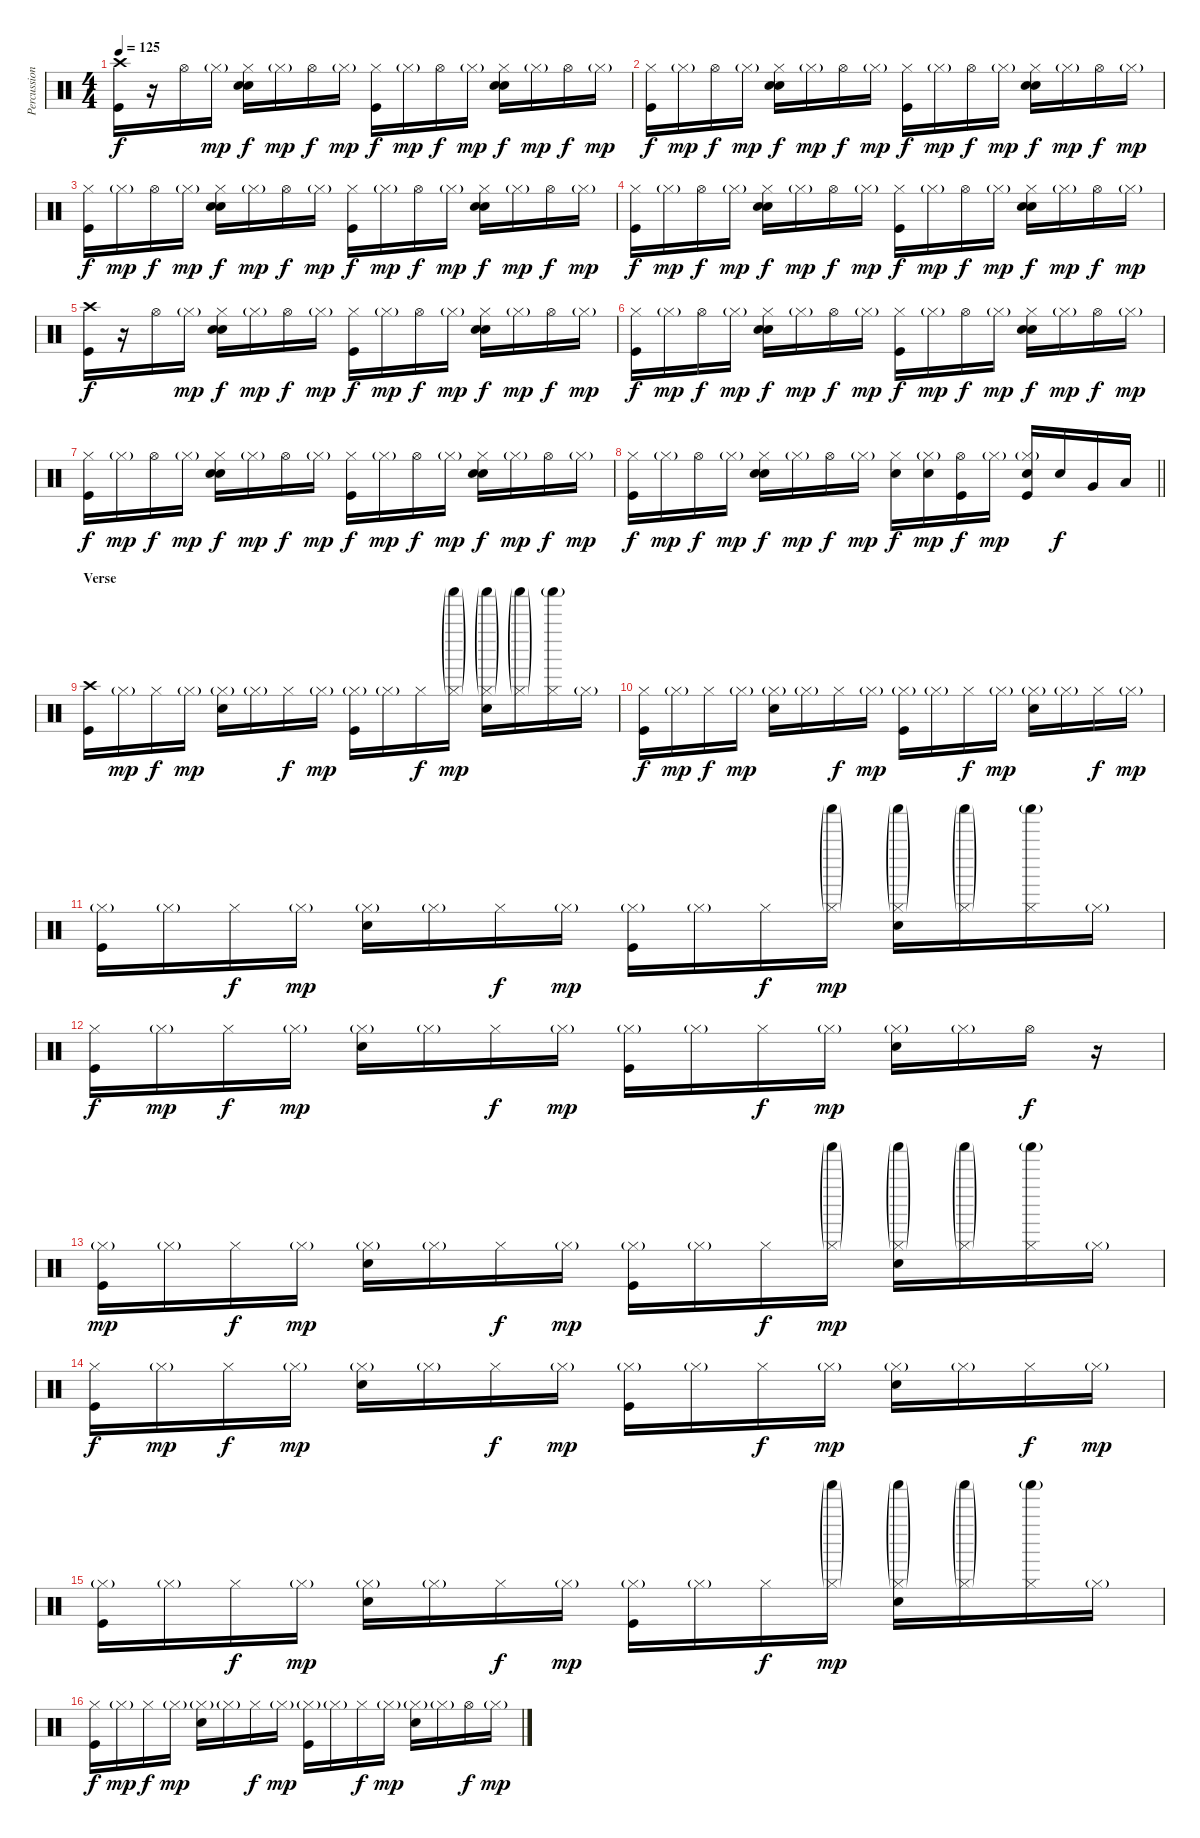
\track ("Percussion" "Percussion") {instrument percussion}
\staff {score}
\articulation defaults
\ts (4 4)
\tempo 125
\clef neutral
\ks c
("Crash high (hit)" "Kick (hit)").16{dy f} r.16 "Hi-Hat (open)".16 "Hi-Hat (closed)"{g}.16{dy mp} ("Hi-Hat (closed)" "Hand Clap (hit)" "Snare (hit) 2").16{dy f} "Hi-Hat (closed)"{g}.16{dy mp} "Hi-Hat (open)".16{dy f} "Hi-Hat (closed)"{g}.16{dy mp} ("Hi-Hat (closed)" "Kick (hit)").16{dy f} "Hi-Hat (closed)"{g}.16{dy mp} "Hi-Hat (open)".16{dy f} "Hi-Hat (closed)"{g}.16{dy mp} ("Hi-Hat (closed)" "Hand Clap (hit)" "Snare (hit) 2").16{dy f} "Hi-Hat (closed)"{g}.16{dy mp} "Hi-Hat (open)".16{dy f} "Hi-Hat (closed)"{g}.16{dy mp} |
("Hi-Hat (closed)" "Kick (hit)").16{dy f} "Hi-Hat (closed)"{g}.16{dy mp} "Hi-Hat (open)".16{dy f} "Hi-Hat (closed)"{g}.16{dy mp} ("Hi-Hat (closed)" "Hand Clap (hit)" "Snare (hit) 2").16{dy f} "Hi-Hat (closed)"{g}.16{dy mp} "Hi-Hat (open)".16{dy f} "Hi-Hat (closed)"{g}.16{dy mp} ("Hi-Hat (closed)" "Kick (hit)").16{dy f} "Hi-Hat (closed)"{g}.16{dy mp} "Hi-Hat (open)".16{dy f} "Hi-Hat (closed)"{g}.16{dy mp} ("Hi-Hat (closed)" "Hand Clap (hit)" "Snare (hit) 2").16{dy f} "Hi-Hat (closed)"{g}.16{dy mp} "Hi-Hat (open)".16{dy f} "Hi-Hat (closed)"{g}.16{dy mp} |
("Hi-Hat (closed)" "Kick (hit)").16{dy f} "Hi-Hat (closed)"{g}.16{dy mp} "Hi-Hat (open)".16{dy f} "Hi-Hat (closed)"{g}.16{dy mp} ("Hi-Hat (closed)" "Hand Clap (hit)" "Snare (hit) 2").16{dy f} "Hi-Hat (closed)"{g}.16{dy mp} "Hi-Hat (open)".16{dy f} "Hi-Hat (closed)"{g}.16{dy mp} ("Hi-Hat (closed)" "Kick (hit)").16{dy f} "Hi-Hat (closed)"{g}.16{dy mp} "Hi-Hat (open)".16{dy f} "Hi-Hat (closed)"{g}.16{dy mp} ("Hi-Hat (closed)" "Hand Clap (hit)" "Snare (hit) 2").16{dy f} "Hi-Hat (closed)"{g}.16{dy mp} "Hi-Hat (open)".16{dy f} "Hi-Hat (closed)"{g}.16{dy mp} |
("Hi-Hat (closed)" "Kick (hit)").16{dy f} "Hi-Hat (closed)"{g}.16{dy mp} "Hi-Hat (open)".16{dy f} "Hi-Hat (closed)"{g}.16{dy mp} ("Hi-Hat (closed)" "Hand Clap (hit)" "Snare (hit) 2").16{dy f} "Hi-Hat (closed)"{g}.16{dy mp} "Hi-Hat (open)".16{dy f} "Hi-Hat (closed)"{g}.16{dy mp} ("Hi-Hat (closed)" "Kick (hit)").16{dy f} "Hi-Hat (closed)"{g}.16{dy mp} "Hi-Hat (open)".16{dy f} "Hi-Hat (closed)"{g}.16{dy mp} ("Hi-Hat (closed)" "Hand Clap (hit)" "Snare (hit) 2").16{dy f} "Hi-Hat (closed)"{g}.16{dy mp} "Hi-Hat (open)".16{dy f} "Hi-Hat (closed)"{g}.16{dy mp} |
("Crash high (hit)" "Kick (hit)").16{dy f} r.16 "Hi-Hat (open)".16 "Hi-Hat (closed)"{g}.16{dy mp} ("Hi-Hat (closed)" "Hand Clap (hit)" "Snare (hit) 2").16{dy f} "Hi-Hat (closed)"{g}.16{dy mp} "Hi-Hat (open)".16{dy f} "Hi-Hat (closed)"{g}.16{dy mp} ("Hi-Hat (closed)" "Kick (hit)").16{dy f} "Hi-Hat (closed)"{g}.16{dy mp} "Hi-Hat (open)".16{dy f} "Hi-Hat (closed)"{g}.16{dy mp} ("Hi-Hat (closed)" "Hand Clap (hit)" "Snare (hit) 2").16{dy f} "Hi-Hat (closed)"{g}.16{dy mp} "Hi-Hat (open)".16{dy f} "Hi-Hat (closed)"{g}.16{dy mp} |
("Hi-Hat (closed)" "Kick (hit)").16{dy f} "Hi-Hat (closed)"{g}.16{dy mp} "Hi-Hat (open)".16{dy f} "Hi-Hat (closed)"{g}.16{dy mp} ("Hi-Hat (closed)" "Hand Clap (hit)" "Snare (hit) 2").16{dy f} "Hi-Hat (closed)"{g}.16{dy mp} "Hi-Hat (open)".16{dy f} "Hi-Hat (closed)"{g}.16{dy mp} ("Hi-Hat (closed)" "Kick (hit)").16{dy f} "Hi-Hat (closed)"{g}.16{dy mp} "Hi-Hat (open)".16{dy f} "Hi-Hat (closed)"{g}.16{dy mp} ("Hi-Hat (closed)" "Hand Clap (hit)" "Snare (hit) 2").16{dy f} "Hi-Hat (closed)"{g}.16{dy mp} "Hi-Hat (open)".16{dy f} "Hi-Hat (closed)"{g}.16{dy mp} |
("Hi-Hat (closed)" "Kick (hit)").16{dy f} "Hi-Hat (closed)"{g}.16{dy mp} "Hi-Hat (open)".16{dy f} "Hi-Hat (closed)"{g}.16{dy mp} ("Hi-Hat (closed)" "Hand Clap (hit)" "Snare (hit) 2").16{dy f} "Hi-Hat (closed)"{g}.16{dy mp} "Hi-Hat (open)".16{dy f} "Hi-Hat (closed)"{g}.16{dy mp} ("Hi-Hat (closed)" "Kick (hit)").16{dy f} "Hi-Hat (closed)"{g}.16{dy mp} "Hi-Hat (open)".16{dy f} "Hi-Hat (closed)"{g}.16{dy mp} ("Hi-Hat (closed)" "Hand Clap (hit)" "Snare (hit) 2").16{dy f} "Hi-Hat (closed)"{g}.16{dy mp} "Hi-Hat (open)".16{dy f} "Hi-Hat (closed)"{g}.16{dy mp} |
\barLineRight lightlight
("Hi-Hat (closed)" "Kick (hit)").16{dy f} "Hi-Hat (closed)"{g}.16{dy mp} "Hi-Hat (open)".16{dy f} "Hi-Hat (closed)"{g}.16{dy mp} ("Hi-Hat (closed)" "Hand Clap (hit)" "Snare (hit) 2").16{dy f} "Hi-Hat (closed)"{g}.16{dy mp} "Hi-Hat (open)".16{dy f} "Hi-Hat (closed)"{g}.16{dy mp} ("Hi-Hat (closed)" "Snare (hit) 2").16{dy f} ("Hi-Hat (closed)"{g} "Snare (hit) 2").16{dy mp} ("Hi-Hat (open)" "Kick (hit)").16{dy f} "Hi-Hat (closed)"{g}.16{dy mp} ("Hi-Hat (closed)"{g} "Snare (hit) 2" "Kick (hit)").16 "Snare (hit) 2".16{dy f} "Very Low Tom (hit)".16 "Low Tom (hit)".16 |
\section ("" "Verse")
("Crash high (hit)" "Kick (hit)").16 "Hi-Hat (closed)"{g}.16{dy mp} "Hi-Hat (closed)".16{dy f} "Hi-Hat (closed)"{g}.16{dy mp} ("Hi-Hat (closed)"{g} "Snare (hit) 2").16 "Hi-Hat (closed)"{g}.16 "Hi-Hat (closed)".16{dy f} "Hi-Hat (closed)"{g}.16{dy mp} ("Hi-Hat (closed)"{g} "Kick (hit)").16 "Hi-Hat (closed)"{g}.16 "Hi-Hat (closed)".16{dy f} ("Shaker (hit)"{g} "Hi-Hat (closed)"{g}).16{dy mp} ("Shaker (hit)"{g} "Hi-Hat (closed)"{g} "Snare (hit) 2").16 ("Shaker (hit)"{g} "Hi-Hat (closed)"{g}).16 ("Shaker (hit)"{g} "Hi-Hat (closed)").16 "Hi-Hat (closed)"{g}.16 |
("Hi-Hat (closed)" "Kick (hit)").16{dy f} "Hi-Hat (closed)"{g}.16{dy mp} "Hi-Hat (closed)".16{dy f} "Hi-Hat (closed)"{g}.16{dy mp} ("Hi-Hat (closed)"{g} "Snare (hit) 2").16 "Hi-Hat (closed)"{g}.16 "Hi-Hat (closed)".16{dy f} "Hi-Hat (closed)"{g}.16{dy mp} ("Hi-Hat (closed)"{g} "Kick (hit)").16 "Hi-Hat (closed)"{g}.16 "Hi-Hat (closed)".16{dy f} "Hi-Hat (closed)"{g}.16{dy mp} ("Hi-Hat (closed)"{g} "Snare (hit) 2").16 "Hi-Hat (closed)"{g}.16 "Hi-Hat (closed)".16{dy f} "Hi-Hat (closed)"{g}.16{dy mp} |
("Hi-Hat (closed)"{g} "Kick (hit)").16 "Hi-Hat (closed)"{g}.16 "Hi-Hat (closed)".16{dy f} "Hi-Hat (closed)"{g}.16{dy mp} ("Hi-Hat (closed)"{g} "Snare (hit) 2").16 "Hi-Hat (closed)"{g}.16 "Hi-Hat (closed)".16{dy f} "Hi-Hat (closed)"{g}.16{dy mp} ("Hi-Hat (closed)"{g} "Kick (hit)").16 "Hi-Hat (closed)"{g}.16 "Hi-Hat (closed)".16{dy f} ("Shaker (hit)"{g} "Hi-Hat (closed)"{g}).16{dy mp} ("Shaker (hit)"{g} "Hi-Hat (closed)"{g} "Snare (hit) 2").16 ("Shaker (hit)"{g} "Hi-Hat (closed)"{g}).16 ("Shaker (hit)"{g} "Hi-Hat (closed)").16 "Hi-Hat (closed)"{g}.16 |
("Hi-Hat (closed)" "Kick (hit)").16{dy f} "Hi-Hat (closed)"{g}.16{dy mp} "Hi-Hat (closed)".16{dy f} "Hi-Hat (closed)"{g}.16{dy mp} ("Hi-Hat (closed)"{g} "Snare (hit) 2").16 "Hi-Hat (closed)"{g}.16 "Hi-Hat (closed)".16{dy f} "Hi-Hat (closed)"{g}.16{dy mp} ("Hi-Hat (closed)"{g} "Kick (hit)").16 "Hi-Hat (closed)"{g}.16 "Hi-Hat (closed)".16{dy f} "Hi-Hat (closed)"{g}.16{dy mp} ("Hi-Hat (closed)"{g} "Snare (hit) 2").16 "Hi-Hat (closed)"{g}.16 "Hi-Hat (open)".16{dy f} r.16 |
("Hi-Hat (closed)"{g} "Kick (hit)").16{dy mp} "Hi-Hat (closed)"{g}.16 "Hi-Hat (closed)".16{dy f} "Hi-Hat (closed)"{g}.16{dy mp} ("Hi-Hat (closed)"{g} "Snare (hit) 2").16 "Hi-Hat (closed)"{g}.16 "Hi-Hat (closed)".16{dy f} "Hi-Hat (closed)"{g}.16{dy mp} ("Hi-Hat (closed)"{g} "Kick (hit)").16 "Hi-Hat (closed)"{g}.16 "Hi-Hat (closed)".16{dy f} ("Shaker (hit)"{g} "Hi-Hat (closed)"{g}).16{dy mp} ("Shaker (hit)"{g} "Hi-Hat (closed)"{g} "Snare (hit) 2").16 ("Shaker (hit)"{g} "Hi-Hat (closed)"{g}).16 ("Shaker (hit)"{g} "Hi-Hat (closed)").16 "Hi-Hat (closed)"{g}.16 |
("Hi-Hat (closed)" "Kick (hit)").16{dy f} "Hi-Hat (closed)"{g}.16{dy mp} "Hi-Hat (closed)".16{dy f} "Hi-Hat (closed)"{g}.16{dy mp} ("Hi-Hat (closed)"{g} "Snare (hit) 2").16 "Hi-Hat (closed)"{g}.16 "Hi-Hat (closed)".16{dy f} "Hi-Hat (closed)"{g}.16{dy mp} ("Hi-Hat (closed)"{g} "Kick (hit)").16 "Hi-Hat (closed)"{g}.16 "Hi-Hat (closed)".16{dy f} "Hi-Hat (closed)"{g}.16{dy mp} ("Hi-Hat (closed)"{g} "Snare (hit) 2").16 "Hi-Hat (closed)"{g}.16 "Hi-Hat (closed)".16{dy f} "Hi-Hat (closed)"{g}.16{dy mp} |
("Hi-Hat (closed)"{g} "Kick (hit)").16 "Hi-Hat (closed)"{g}.16 "Hi-Hat (closed)".16{dy f} "Hi-Hat (closed)"{g}.16{dy mp} ("Hi-Hat (closed)"{g} "Snare (hit) 2").16 "Hi-Hat (closed)"{g}.16 "Hi-Hat (closed)".16{dy f} "Hi-Hat (closed)"{g}.16{dy mp} ("Hi-Hat (closed)"{g} "Kick (hit)").16 "Hi-Hat (closed)"{g}.16 "Hi-Hat (closed)".16{dy f} ("Shaker (hit)"{g} "Hi-Hat (closed)"{g}).16{dy mp} ("Shaker (hit)"{g} "Hi-Hat (closed)"{g} "Snare (hit) 2").16 ("Shaker (hit)"{g} "Hi-Hat (closed)"{g}).16 ("Shaker (hit)"{g} "Hi-Hat (closed)").16 "Hi-Hat (closed)"{g}.16 |
("Hi-Hat (closed)" "Kick (hit)").16{dy f} "Hi-Hat (closed)"{g}.16{dy mp} "Hi-Hat (closed)".16{dy f} "Hi-Hat (closed)"{g}.16{dy mp} ("Hi-Hat (closed)"{g} "Snare (hit) 2").16 "Hi-Hat (closed)"{g}.16 "Hi-Hat (closed)".16{dy f} "Hi-Hat (closed)"{g}.16{dy mp} ("Hi-Hat (closed)"{g} "Kick (hit)").16 "Hi-Hat (closed)"{g}.16 "Hi-Hat (closed)".16{dy f} "Hi-Hat (closed)"{g}.16{dy mp} ("Hi-Hat (closed)"{g} "Snare (hit) 2").16 "Hi-Hat (closed)"{g}.16 "Hi-Hat (open)".16{dy f} "Hi-Hat (closed)"{g}.16{dy mp}
